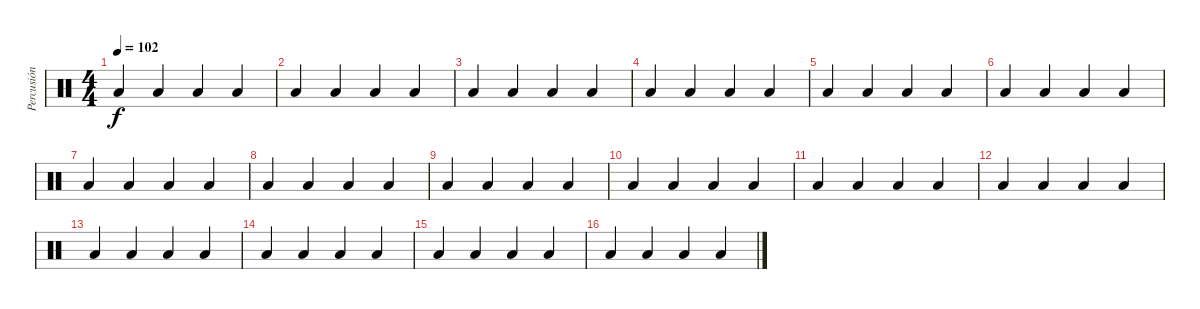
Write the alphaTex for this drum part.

\track ("Percusión" "Percusión") {instrument percussion}
\staff {score}
\articulation defaults
\ts (4 4)
\tempo 102
\clef neutral
\ks c "Low Tom (hit)".4{dy f} "Low Tom (hit)".4 "Low Tom (hit)".4 "Low Tom (hit)".4
|
"Low Tom (hit)".4 "Low Tom (hit)".4 "Low Tom (hit)".4 "Low Tom (hit)".4 |
"Low Tom (hit)".4 "Low Tom (hit)".4 "Low Tom (hit)".4 "Low Tom (hit)".4 |
"Low Tom (hit)".4 "Low Tom (hit)".4 "Low Tom (hit)".4 "Low Tom (hit)".4 |
"Low Tom (hit)".4 "Low Tom (hit)".4 "Low Tom (hit)".4 "Low Tom (hit)".4 |
"Low Tom (hit)".4 "Low Tom (hit)".4 "Low Tom (hit)".4 "Low Tom (hit)".4 |
"Low Tom (hit)".4 "Low Tom (hit)".4 "Low Tom (hit)".4 "Low Tom (hit)".4 |
"Low Tom (hit)".4 "Low Tom (hit)".4 "Low Tom (hit)".4 "Low Tom (hit)".4 |
"Low Tom (hit)".4 "Low Tom (hit)".4 "Low Tom (hit)".4 "Low Tom (hit)".4 |
"Low Tom (hit)".4 "Low Tom (hit)".4 "Low Tom (hit)".4 "Low Tom (hit)".4 |
"Low Tom (hit)".4 "Low Tom (hit)".4 "Low Tom (hit)".4 "Low Tom (hit)".4 |
"Low Tom (hit)".4 "Low Tom (hit)".4 "Low Tom (hit)".4 "Low Tom (hit)".4 |
"Low Tom (hit)".4 "Low Tom (hit)".4 "Low Tom (hit)".4 "Low Tom (hit)".4 |
"Low Tom (hit)".4 "Low Tom (hit)".4 "Low Tom (hit)".4 "Low Tom (hit)".4 |
"Low Tom (hit)".4 "Low Tom (hit)".4 "Low Tom (hit)".4 "Low Tom (hit)".4 |
"Low Tom (hit)".4 "Low Tom (hit)".4 "Low Tom (hit)".4 "Low Tom (hit)".4
